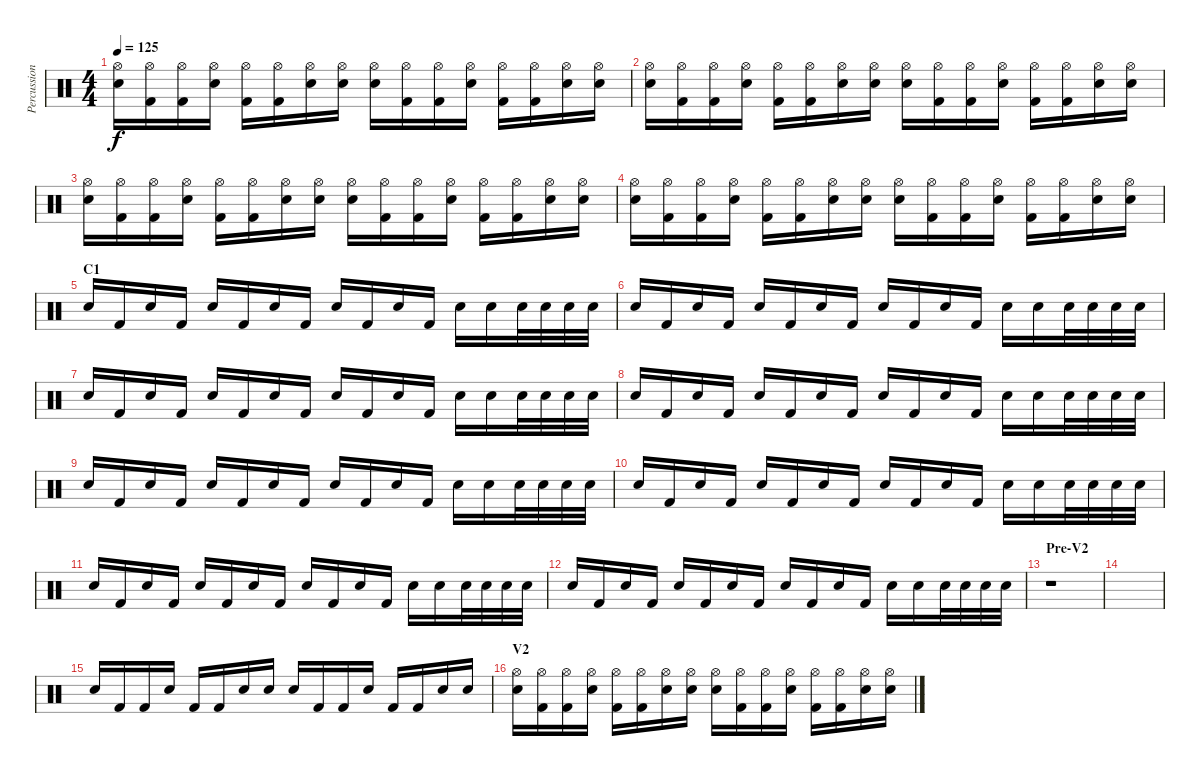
\track ("Percussion" "Percussion") {instrument percussion}
\staff {score}
\articulation defaults
\ts (4 4)
\tempo 125
\clef neutral
\ks c
("Hi-Hat (open)" "Snare (hit) 2").16{dy f} ("Hi-Hat (open)" "Kick (hit) 2").16 ("Hi-Hat (open)" "Kick (hit) 2").16 ("Hi-Hat (open)" "Snare (hit) 2").16 ("Hi-Hat (open)" "Kick (hit) 2").16 ("Hi-Hat (open)" "Kick (hit) 2").16 ("Hi-Hat (open)" "Snare (hit) 2").16 ("Hi-Hat (open)" "Snare (hit) 2").16 ("Hi-Hat (open)" "Snare (hit) 2").16 ("Hi-Hat (open)" "Kick (hit) 2").16 ("Hi-Hat (open)" "Kick (hit) 2").16 ("Hi-Hat (open)" "Snare (hit) 2").16 ("Hi-Hat (open)" "Kick (hit) 2").16 ("Hi-Hat (open)" "Kick (hit) 2").16 ("Hi-Hat (open)" "Snare (hit) 2").16 ("Hi-Hat (open)" "Snare (hit) 2").16 |
("Hi-Hat (open)" "Snare (hit) 2").16 ("Hi-Hat (open)" "Kick (hit) 2").16 ("Hi-Hat (open)" "Kick (hit) 2").16 ("Hi-Hat (open)" "Snare (hit) 2").16 ("Hi-Hat (open)" "Kick (hit) 2").16 ("Hi-Hat (open)" "Kick (hit) 2").16 ("Hi-Hat (open)" "Snare (hit) 2").16 ("Hi-Hat (open)" "Snare (hit) 2").16 ("Hi-Hat (open)" "Snare (hit) 2").16 ("Hi-Hat (open)" "Kick (hit) 2").16 ("Hi-Hat (open)" "Kick (hit) 2").16 ("Hi-Hat (open)" "Snare (hit) 2").16 ("Hi-Hat (open)" "Kick (hit) 2").16 ("Hi-Hat (open)" "Kick (hit) 2").16 ("Hi-Hat (open)" "Snare (hit) 2").16 ("Hi-Hat (open)" "Snare (hit) 2").16 |
("Hi-Hat (open)" "Snare (hit) 2").16 ("Hi-Hat (open)" "Kick (hit) 2").16 ("Hi-Hat (open)" "Kick (hit) 2").16 ("Hi-Hat (open)" "Snare (hit) 2").16 ("Hi-Hat (open)" "Kick (hit) 2").16 ("Hi-Hat (open)" "Kick (hit) 2").16 ("Hi-Hat (open)" "Snare (hit) 2").16 ("Hi-Hat (open)" "Snare (hit) 2").16 ("Hi-Hat (open)" "Snare (hit) 2").16 ("Hi-Hat (open)" "Kick (hit) 2").16 ("Hi-Hat (open)" "Kick (hit) 2").16 ("Hi-Hat (open)" "Snare (hit) 2").16 ("Hi-Hat (open)" "Kick (hit) 2").16 ("Hi-Hat (open)" "Kick (hit) 2").16 ("Hi-Hat (open)" "Snare (hit) 2").16 ("Hi-Hat (open)" "Snare (hit) 2").16 |
("Hi-Hat (open)" "Snare (hit) 2").16 ("Hi-Hat (open)" "Kick (hit) 2").16 ("Hi-Hat (open)" "Kick (hit) 2").16 ("Hi-Hat (open)" "Snare (hit) 2").16 ("Hi-Hat (open)" "Kick (hit) 2").16 ("Hi-Hat (open)" "Kick (hit) 2").16 ("Hi-Hat (open)" "Snare (hit) 2").16 ("Hi-Hat (open)" "Snare (hit) 2").16 ("Hi-Hat (open)" "Snare (hit) 2").16 ("Hi-Hat (open)" "Kick (hit) 2").16 ("Hi-Hat (open)" "Kick (hit) 2").16 ("Hi-Hat (open)" "Snare (hit) 2").16 ("Hi-Hat (open)" "Kick (hit) 2").16 ("Hi-Hat (open)" "Kick (hit) 2").16 ("Hi-Hat (open)" "Snare (hit) 2").16 ("Hi-Hat (open)" "Snare (hit) 2").16 |
\section ("" "C1")
"Snare (hit) 2".16 "Kick (hit) 2".16 "Snare (hit) 2".16 "Kick (hit) 2".16 "Snare (hit) 2".16 "Kick (hit) 2".16 "Snare (hit) 2".16 "Kick (hit) 2".16 "Snare (hit) 2".16 "Kick (hit) 2".16 "Snare (hit) 2".16 "Kick (hit) 2".16 "Snare (hit) 2".16 "Snare (hit) 2".16 "Snare (hit) 2".32 "Snare (hit) 2".32 "Snare (hit) 2".32 "Snare (hit) 2".32 |
"Snare (hit) 2".16 "Kick (hit) 2".16 "Snare (hit) 2".16 "Kick (hit) 2".16 "Snare (hit) 2".16 "Kick (hit) 2".16 "Snare (hit) 2".16 "Kick (hit) 2".16 "Snare (hit) 2".16 "Kick (hit) 2".16 "Snare (hit) 2".16 "Kick (hit) 2".16 "Snare (hit) 2".16 "Snare (hit) 2".16 "Snare (hit) 2".32 "Snare (hit) 2".32 "Snare (hit) 2".32 "Snare (hit) 2".32 |
"Snare (hit) 2".16 "Kick (hit) 2".16 "Snare (hit) 2".16 "Kick (hit) 2".16 "Snare (hit) 2".16 "Kick (hit) 2".16 "Snare (hit) 2".16 "Kick (hit) 2".16 "Snare (hit) 2".16 "Kick (hit) 2".16 "Snare (hit) 2".16 "Kick (hit) 2".16 "Snare (hit) 2".16 "Snare (hit) 2".16 "Snare (hit) 2".32 "Snare (hit) 2".32 "Snare (hit) 2".32 "Snare (hit) 2".32 |
"Snare (hit) 2".16 "Kick (hit) 2".16 "Snare (hit) 2".16 "Kick (hit) 2".16 "Snare (hit) 2".16 "Kick (hit) 2".16 "Snare (hit) 2".16 "Kick (hit) 2".16 "Snare (hit) 2".16 "Kick (hit) 2".16 "Snare (hit) 2".16 "Kick (hit) 2".16 "Snare (hit) 2".16 "Snare (hit) 2".16 "Snare (hit) 2".32 "Snare (hit) 2".32 "Snare (hit) 2".32 "Snare (hit) 2".32 |
"Snare (hit) 2".16 "Kick (hit) 2".16 "Snare (hit) 2".16 "Kick (hit) 2".16 "Snare (hit) 2".16 "Kick (hit) 2".16 "Snare (hit) 2".16 "Kick (hit) 2".16 "Snare (hit) 2".16 "Kick (hit) 2".16 "Snare (hit) 2".16 "Kick (hit) 2".16 "Snare (hit) 2".16 "Snare (hit) 2".16 "Snare (hit) 2".32 "Snare (hit) 2".32 "Snare (hit) 2".32 "Snare (hit) 2".32 |
"Snare (hit) 2".16 "Kick (hit) 2".16 "Snare (hit) 2".16 "Kick (hit) 2".16 "Snare (hit) 2".16 "Kick (hit) 2".16 "Snare (hit) 2".16 "Kick (hit) 2".16 "Snare (hit) 2".16 "Kick (hit) 2".16 "Snare (hit) 2".16 "Kick (hit) 2".16 "Snare (hit) 2".16 "Snare (hit) 2".16 "Snare (hit) 2".32 "Snare (hit) 2".32 "Snare (hit) 2".32 "Snare (hit) 2".32 |
"Snare (hit) 2".16 "Kick (hit) 2".16 "Snare (hit) 2".16 "Kick (hit) 2".16 "Snare (hit) 2".16 "Kick (hit) 2".16 "Snare (hit) 2".16 "Kick (hit) 2".16 "Snare (hit) 2".16 "Kick (hit) 2".16 "Snare (hit) 2".16 "Kick (hit) 2".16 "Snare (hit) 2".16 "Snare (hit) 2".16 "Snare (hit) 2".32 "Snare (hit) 2".32 "Snare (hit) 2".32 "Snare (hit) 2".32 |
"Snare (hit) 2".16 "Kick (hit) 2".16 "Snare (hit) 2".16 "Kick (hit) 2".16 "Snare (hit) 2".16 "Kick (hit) 2".16 "Snare (hit) 2".16 "Kick (hit) 2".16 "Snare (hit) 2".16 "Kick (hit) 2".16 "Snare (hit) 2".16 "Kick (hit) 2".16 "Snare (hit) 2".16 "Snare (hit) 2".16 "Snare (hit) 2".32 "Snare (hit) 2".32 "Snare (hit) 2".32 "Snare (hit) 2".32 |
\section ("" "Pre-V2")
r.1 |
|
"Snare (hit) 2".16 "Kick (hit) 2".16 "Kick (hit) 2".16 "Snare (hit) 2".16 "Kick (hit) 2".16 "Kick (hit) 2".16 "Snare (hit) 2".16 "Snare (hit) 2".16 "Snare (hit) 2".16 "Kick (hit) 2".16 "Kick (hit) 2".16 "Snare (hit) 2".16 "Kick (hit) 2".16 "Kick (hit) 2".16 "Snare (hit) 2".16 "Snare (hit) 2".16 |
\section ("" "V2")
("Hi-Hat (open)" "Snare (hit) 2").16 ("Hi-Hat (open)" "Kick (hit) 2").16 ("Hi-Hat (open)" "Kick (hit) 2").16 ("Hi-Hat (open)" "Snare (hit) 2").16 ("Hi-Hat (open)" "Kick (hit) 2").16 ("Hi-Hat (open)" "Kick (hit) 2").16 ("Hi-Hat (open)" "Snare (hit) 2").16 ("Hi-Hat (open)" "Snare (hit) 2").16 ("Hi-Hat (open)" "Snare (hit) 2").16 ("Hi-Hat (open)" "Kick (hit) 2").16 ("Hi-Hat (open)" "Kick (hit) 2").16 ("Hi-Hat (open)" "Snare (hit) 2").16 ("Hi-Hat (open)" "Kick (hit) 2").16 ("Hi-Hat (open)" "Kick (hit) 2").16 ("Hi-Hat (open)" "Snare (hit) 2").16 ("Hi-Hat (open)" "Snare (hit) 2").16
